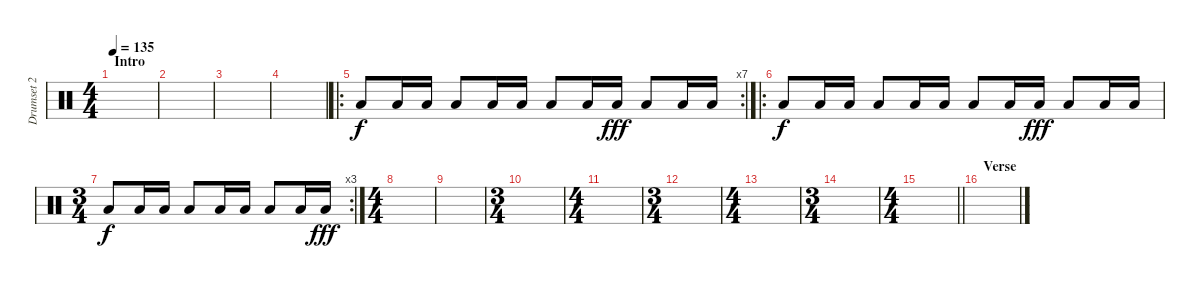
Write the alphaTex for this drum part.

\track ("Drumset 2" "Drumset 2") {instrument percussion}
\staff {score}
\articulation defaults
\ts (4 4)
\section ("" "Intro")
\tempo 135
\clef neutral
\ks c
|
|
|
|
\ro
\rc 7 "Low Floor Tom (hit)".8 "Low Floor Tom (hit)".16 "Low Floor Tom (hit)".16 "Low Floor Tom (hit)".8 "Low Floor Tom (hit)".16 "Low Floor Tom (hit)".16 "Low Floor Tom (hit)".8 "Low Floor Tom (hit)".16 "Low Floor Tom (hit)".16{dy fff} "Low Floor Tom (hit)".8 "Low Floor Tom (hit)".16 "Low Floor Tom (hit)".16
|
\ro "Low Floor Tom (hit)".8{dy f} "Low Floor Tom (hit)".16 "Low Floor Tom (hit)".16 "Low Floor Tom (hit)".8 "Low Floor Tom (hit)".16 "Low Floor Tom (hit)".16 "Low Floor Tom (hit)".8 "Low Floor Tom (hit)".16 "Low Floor Tom (hit)".16{dy fff} "Low Floor Tom (hit)".8 "Low Floor Tom (hit)".16 "Low Floor Tom (hit)".16
|
\rc 3
\ts (3 4)
"Low Floor Tom (hit)".8{dy f} "Low Floor Tom (hit)".16 "Low Floor Tom (hit)".16 "Low Floor Tom (hit)".8 "Low Floor Tom (hit)".16 "Low Floor Tom (hit)".16 "Low Floor Tom (hit)".8 "Low Floor Tom (hit)".16 "Low Floor Tom (hit)".16{dy fff} |
\ts (4 4)
|
|
\ts (3 4)
|
\ts (4 4)
|
\ts (3 4)
|
\ts (4 4)
|
\ts (3 4)
|
\ts (4 4)
\barLineRight lightlight
|
\section ("" "Verse")
